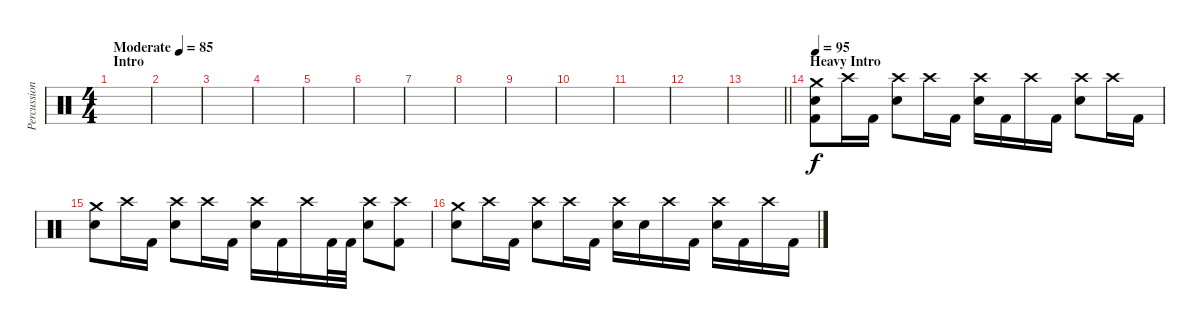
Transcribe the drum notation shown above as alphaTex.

\track ("Percussion" "Percussion") {instrument percussion}
\staff {score}
\articulation defaults
\ts (4 4)
\section ("" "Intro")
\tempo (85 "Moderate")
\clef neutral
\ks c
|
|
|
|
|
|
|
|
|
|
|
|
\barLineRight lightlight
|
\section ("" "Heavy Intro")
\tempo 95
("Crash medium (hit)" "Snare (hit) 2" "Kick (hit) 2").8 "Crash high (hit)".16 "Kick (hit) 2".16 ("Crash high (hit)" "Snare (hit) 2").8 "Crash high (hit)".16 "Kick (hit) 2".16 ("Crash high (hit)" "Snare (hit) 2").16 "Kick (hit) 2".16 "Crash high (hit)".16 "Kick (hit) 2".16 ("Crash high (hit)" "Snare (hit) 2").8 "Crash high (hit)".16 "Kick (hit) 2".16 |
("Crash medium (hit)" "Snare (hit) 2").8 "Crash high (hit)".16 "Kick (hit) 2".16 ("Crash high (hit)" "Snare (hit) 2").8 "Crash high (hit)".16 "Kick (hit) 2".16 ("Crash high (hit)" "Snare (hit) 2").16 "Kick (hit) 2".16 "Crash high (hit)".16 "Kick (hit) 2".32 "Kick (hit) 2".32 ("Crash high (hit)" "Snare (hit) 2").8 ("Crash high (hit)" "Kick (hit) 2").8 |
("Crash medium (hit)" "Snare (hit) 2").8 "Crash high (hit)".16 "Kick (hit) 2".16 ("Crash high (hit)" "Snare (hit) 2").8 "Crash high (hit)".16 "Kick (hit) 2".16 ("Crash high (hit)" "Snare (hit) 2").16 "Snare (hit) 2".16 "Crash high (hit)".16 "Kick (hit) 2".16 ("Crash high (hit)" "Snare (hit) 2").16 "Kick (hit) 2".16 "Crash high (hit)".16 "Kick (hit) 2".16
